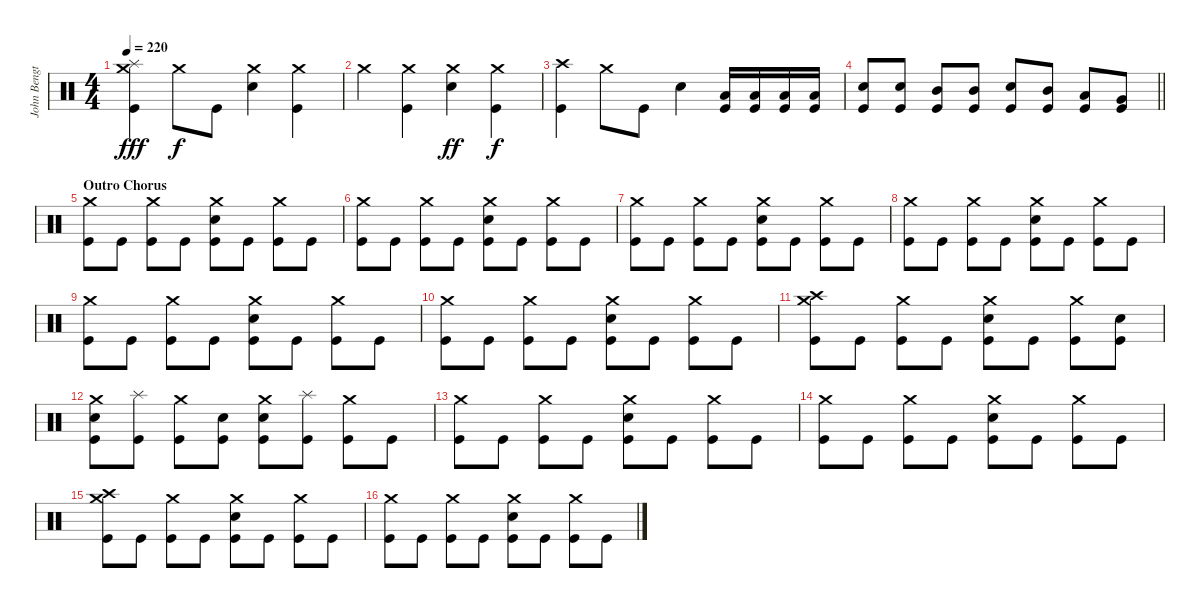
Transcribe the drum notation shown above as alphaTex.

\track ("John Bengtsson" "John Bengt") {instrument percussion}
\staff {score}
\articulation defaults
\ts (4 4)
\tempo 220
\clef neutral
\ks c
("Crash medium (hit)" "Splash (hit)" "Kick (hit)").4{dy fff} "Crash medium (hit)".8{dy f} "Kick (hit)".8 ("Crash medium (hit)" "Snare (hit) 2").4 ("Crash medium (hit)" "Kick (hit)").4 |
"Crash medium (hit)".4 ("Crash medium (hit)" "Kick (hit)").4 ("Crash medium (hit)" "Snare (hit) 2").4{dy ff} ("Crash medium (hit)" "Kick (hit)").4{dy f} |
("Crash high (hit)" "Kick (hit)").4 "Crash medium (hit)".8 "Kick (hit)".8 "Snare (hit) 2".4 ("Low Tom (hit)" "Kick (hit)").16 ("Low Tom (hit)" "Kick (hit)").16 ("Low Tom (hit)" "Kick (hit)").16 ("Low Tom (hit)" "Kick (hit)").16 |
\barLineRight lightlight
("Snare (hit) 2" "Kick (hit)").8 ("Snare (hit) 2" "Kick (hit)").8 ("Mid Tom (hit)" "Kick (hit)").8 ("Mid Tom (hit)" "Kick (hit)").8 ("Snare (hit) 2" "Kick (hit)").8 ("Mid Tom (hit)" "Kick (hit)").8 ("Low Tom (hit)" "Kick (hit)").8 ("Very Low Tom (hit)" "Kick (hit)").8 |
\section ("" "Outro Chorus")
("Crash medium (hit)" "Kick (hit)").8 "Kick (hit)".8 ("Crash medium (hit)" "Kick (hit)").8 "Kick (hit)".8 ("Crash medium (hit)" "Snare (hit) 2" "Kick (hit)").8 "Kick (hit)".8 ("Crash medium (hit)" "Kick (hit)").8 "Kick (hit)".8 |
("Crash medium (hit)" "Kick (hit)").8 "Kick (hit)".8 ("Crash medium (hit)" "Kick (hit)").8 "Kick (hit)".8 ("Crash medium (hit)" "Snare (hit) 2" "Kick (hit)").8 "Kick (hit)".8 ("Crash medium (hit)" "Kick (hit)").8 "Kick (hit)".8 |
("Crash medium (hit)" "Kick (hit)").8 "Kick (hit)".8 ("Crash medium (hit)" "Kick (hit)").8 "Kick (hit)".8 ("Crash medium (hit)" "Snare (hit) 2" "Kick (hit)").8 "Kick (hit)".8 ("Crash medium (hit)" "Kick (hit)").8 "Kick (hit)".8 |
("Crash medium (hit)" "Kick (hit)").8 "Kick (hit)".8 ("Crash medium (hit)" "Kick (hit)").8 "Kick (hit)".8 ("Crash medium (hit)" "Snare (hit) 2" "Kick (hit)").8 "Kick (hit)".8 ("Crash medium (hit)" "Kick (hit)").8 "Kick (hit)".8 |
("Crash medium (hit)" "Kick (hit)").8 "Kick (hit)".8 ("Crash medium (hit)" "Kick (hit)").8 "Kick (hit)".8 ("Crash medium (hit)" "Snare (hit) 2" "Kick (hit)").8 "Kick (hit)".8 ("Crash medium (hit)" "Kick (hit)").8 "Kick (hit)".8 |
("Crash medium (hit)" "Kick (hit)").8 "Kick (hit)".8 ("Crash medium (hit)" "Kick (hit)").8 "Kick (hit)".8 ("Crash medium (hit)" "Snare (hit) 2" "Kick (hit)").8 "Kick (hit)".8 ("Crash medium (hit)" "Kick (hit)").8 "Kick (hit)".8 |
("Crash medium (hit)" "Crash high (hit)" "Kick (hit)").8 "Kick (hit)".8 ("Crash medium (hit)" "Kick (hit)").8 "Kick (hit)".8 ("Crash medium (hit)" "Snare (hit) 2" "Kick (hit)").8 "Kick (hit)".8 ("Crash medium (hit)" "Kick (hit)").8 ("Snare (hit) 2" "Kick (hit)").8 |
("Crash medium (hit)" "Snare (hit) 2" "Kick (hit)").8 ("Splash (hit)" "Kick (hit)").8 ("Crash medium (hit)" "Kick (hit)").8 ("Snare (hit) 2" "Kick (hit)").8 ("Crash medium (hit)" "Snare (hit) 2" "Kick (hit)").8 ("Splash (hit)" "Kick (hit)").8 ("Crash medium (hit)" "Kick (hit)").8 "Kick (hit)".8 |
("Crash medium (hit)" "Kick (hit)").8 "Kick (hit)".8 ("Crash medium (hit)" "Kick (hit)").8 "Kick (hit)".8 ("Crash medium (hit)" "Snare (hit) 2" "Kick (hit)").8 "Kick (hit)".8 ("Crash medium (hit)" "Kick (hit)").8 "Kick (hit)".8 |
("Crash medium (hit)" "Kick (hit)").8 "Kick (hit)".8 ("Crash medium (hit)" "Kick (hit)").8 "Kick (hit)".8 ("Crash medium (hit)" "Snare (hit) 2" "Kick (hit)").8 "Kick (hit)".8 ("Crash medium (hit)" "Kick (hit)").8 "Kick (hit)".8 |
("Crash medium (hit)" "Crash high (hit)" "Kick (hit)").8 "Kick (hit)".8 ("Crash medium (hit)" "Kick (hit)").8 "Kick (hit)".8 ("Crash medium (hit)" "Snare (hit) 2" "Kick (hit)").8 "Kick (hit)".8 ("Crash medium (hit)" "Kick (hit)").8 "Kick (hit)".8 |
("Crash medium (hit)" "Kick (hit)").8 "Kick (hit)".8 ("Crash medium (hit)" "Kick (hit)").8 "Kick (hit)".8 ("Crash medium (hit)" "Snare (hit) 2" "Kick (hit)").8 "Kick (hit)".8 ("Crash medium (hit)" "Kick (hit)").8 "Kick (hit)".8
